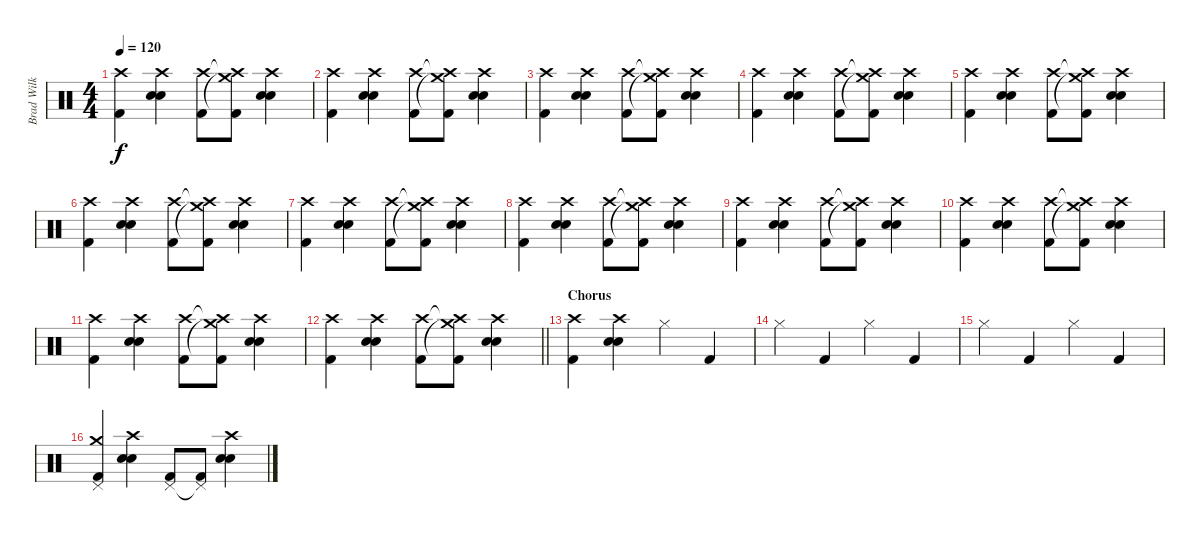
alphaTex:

\track ("Brad Wilk" "Brad Wilk") {instrument percussion}
\staff {score}
\articulation defaults
\ts (4 4)
\tempo 120
\clef neutral
\ks c
("Crash high (hit)" "Kick (hit) 2").4{dy f} ("Electric Snare (hit)" "Snare (hit) 2" "Crash high (hit)").4 ("Crash high (hit)" "Kick (hit) 2").8 ("Crash high (hit)"{t} "Crash medium (hit)"{t} "Kick (hit) 2").8 ("Electric Snare (hit)" "Snare (hit) 2" "Crash high (hit)").4 |
("Crash high (hit)" "Kick (hit) 2").4 ("Electric Snare (hit)" "Snare (hit) 2" "Crash high (hit)").4 ("Crash high (hit)" "Kick (hit) 2").8 ("Crash high (hit)"{t} "Crash medium (hit)"{t} "Kick (hit) 2").8 ("Electric Snare (hit)" "Snare (hit) 2" "Crash high (hit)").4 |
("Crash high (hit)" "Kick (hit) 2").4 ("Electric Snare (hit)" "Snare (hit) 2" "Crash high (hit)").4 ("Crash high (hit)" "Kick (hit) 2").8 ("Crash high (hit)"{t} "Crash medium (hit)"{t} "Kick (hit) 2").8 ("Electric Snare (hit)" "Snare (hit) 2" "Crash high (hit)").4 |
("Crash high (hit)" "Kick (hit) 2").4 ("Electric Snare (hit)" "Snare (hit) 2" "Crash high (hit)").4 ("Crash high (hit)" "Kick (hit) 2").8 ("Crash high (hit)"{t} "Crash medium (hit)"{t} "Kick (hit) 2").8 ("Electric Snare (hit)" "Snare (hit) 2" "Crash high (hit)").4 |
("Crash high (hit)" "Kick (hit) 2").4 ("Electric Snare (hit)" "Snare (hit) 2" "Crash high (hit)").4 ("Crash high (hit)" "Kick (hit) 2").8 ("Crash high (hit)"{t} "Crash medium (hit)"{t} "Kick (hit) 2").8 ("Electric Snare (hit)" "Snare (hit) 2" "Crash high (hit)").4 |
("Crash high (hit)" "Kick (hit) 2").4 ("Electric Snare (hit)" "Snare (hit) 2" "Crash high (hit)").4 ("Crash high (hit)" "Kick (hit) 2").8 ("Crash high (hit)"{t} "Crash medium (hit)"{t} "Kick (hit) 2").8 ("Electric Snare (hit)" "Snare (hit) 2" "Crash high (hit)").4 |
("Crash high (hit)" "Kick (hit) 2").4 ("Electric Snare (hit)" "Snare (hit) 2" "Crash high (hit)").4 ("Crash high (hit)" "Kick (hit) 2").8 ("Crash high (hit)"{t} "Crash medium (hit)"{t} "Kick (hit) 2").8 ("Electric Snare (hit)" "Snare (hit) 2" "Crash high (hit)").4 |
("Crash high (hit)" "Kick (hit) 2").4 ("Electric Snare (hit)" "Snare (hit) 2" "Crash high (hit)").4 ("Crash high (hit)" "Kick (hit) 2").8 ("Crash high (hit)"{t} "Crash medium (hit)"{t} "Kick (hit) 2").8 ("Electric Snare (hit)" "Snare (hit) 2" "Crash high (hit)").4 |
("Crash high (hit)" "Kick (hit) 2").4 ("Electric Snare (hit)" "Snare (hit) 2" "Crash high (hit)").4 ("Crash high (hit)" "Kick (hit) 2").8 ("Crash high (hit)"{t} "Crash medium (hit)"{t} "Kick (hit) 2").8 ("Electric Snare (hit)" "Snare (hit) 2" "Crash high (hit)").4 |
("Crash high (hit)" "Kick (hit) 2").4 ("Electric Snare (hit)" "Snare (hit) 2" "Crash high (hit)").4 ("Crash high (hit)" "Kick (hit) 2").8 ("Crash high (hit)"{t} "Crash medium (hit)"{t} "Kick (hit) 2").8 ("Electric Snare (hit)" "Snare (hit) 2" "Crash high (hit)").4 |
("Crash high (hit)" "Kick (hit) 2").4 ("Electric Snare (hit)" "Snare (hit) 2" "Crash high (hit)").4 ("Crash high (hit)" "Kick (hit) 2").8 ("Crash high (hit)"{t} "Crash medium (hit)"{t} "Kick (hit) 2").8 ("Electric Snare (hit)" "Snare (hit) 2" "Crash high (hit)").4 |
\barLineRight lightlight
("Crash high (hit)" "Kick (hit) 2").4 ("Electric Snare (hit)" "Snare (hit) 2" "Crash high (hit)").4 ("Crash high (hit)" "Kick (hit) 2").8 ("Crash high (hit)"{t} "Crash medium (hit)"{t} "Kick (hit) 2").8 ("Electric Snare (hit)" "Snare (hit) 2" "Crash high (hit)").4 |
\section ("" "Chorus")
("Crash high (hit)" "Kick (hit) 2").4 ("Electric Snare (hit)" "Snare (hit) 2" "Crash high (hit)").4 "Hi-Hat (closed)".4 "Kick (hit) 2".4 |
"Hi-Hat (closed)".4 "Kick (hit) 2".4 "Hi-Hat (closed)".4 "Kick (hit) 2".4 |
"Hi-Hat (closed)".4 "Kick (hit) 2".4 "Hi-Hat (closed)".4 "Kick (hit) 2".4 |
("Crash medium (hit)" "Pedal Hi-Hat (hit)" "Kick (hit) 2").4 ("Electric Snare (hit)" "Snare (hit) 2" "Crash high (hit)").4 ("Pedal Hi-Hat (hit)" "Kick (hit) 2").8 ("Pedal Hi-Hat (hit)"{t} "Kick (hit) 2").8 ("Electric Snare (hit)" "Snare (hit) 2" "Crash high (hit)").4
